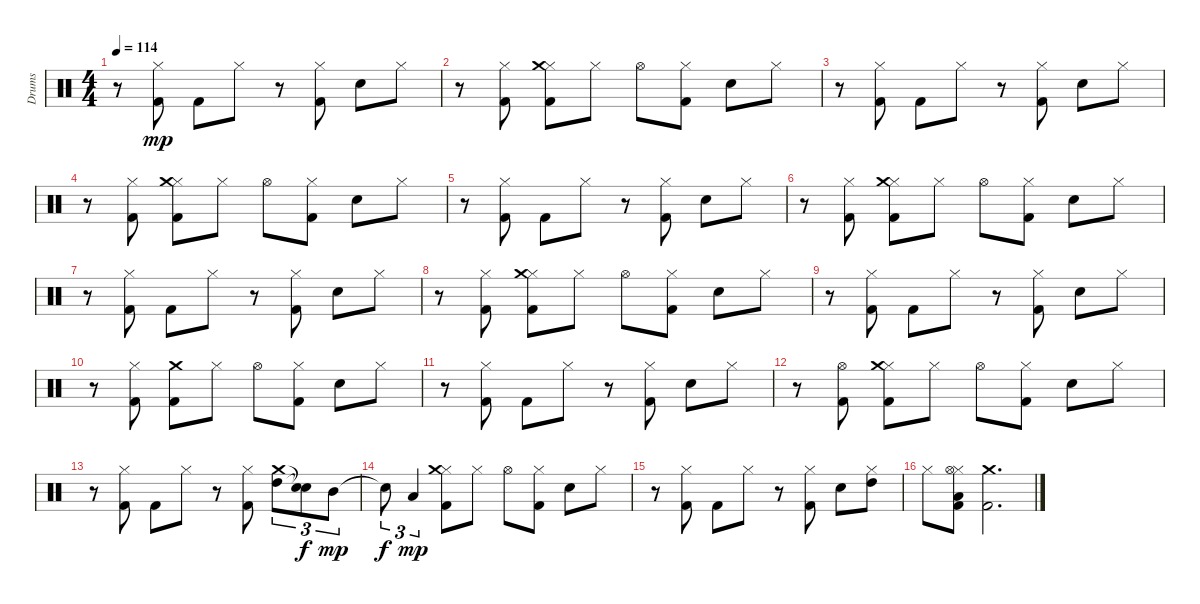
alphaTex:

\track ("Drums" "Drums") {instrument percussion}
\staff {score}
\articulation defaults
\ts (4 4)
\tempo 114
\clef neutral
\ks c
r.8{dy mp} ("Kick (hit) 2" "Hi-Hat (closed)").8 "Kick (hit) 2".8 "Hi-Hat (closed)".8 r.8 ("Kick (hit) 2" "Hi-Hat (closed)").8 "Snare (hit) 2".8 "Hi-Hat (closed)".8 |
r.8 ("Kick (hit) 2" "Hi-Hat (closed)").8 ("Kick (hit) 2" "Hi-Hat (closed)" "Crash medium (hit)").8 "Hi-Hat (closed)".8 "Hi-Hat (open)".8 ("Kick (hit) 2" "Hi-Hat (closed)").8 "Snare (hit) 2".8 "Hi-Hat (closed)".8 |
r.8 ("Kick (hit) 2" "Hi-Hat (closed)").8 "Kick (hit) 2".8 "Hi-Hat (closed)".8 r.8 ("Kick (hit) 2" "Hi-Hat (closed)").8 "Snare (hit) 2".8 "Hi-Hat (closed)".8 |
r.8 ("Kick (hit) 2" "Hi-Hat (closed)").8 ("Kick (hit) 2" "Hi-Hat (closed)" "Crash medium (hit)").8 "Hi-Hat (closed)".8 "Hi-Hat (open)".8 ("Kick (hit) 2" "Hi-Hat (closed)").8 "Snare (hit) 2".8 "Hi-Hat (closed)".8 |
r.8 ("Kick (hit) 2" "Hi-Hat (closed)").8 "Kick (hit) 2".8 "Hi-Hat (closed)".8 r.8 ("Kick (hit) 2" "Hi-Hat (closed)").8 "Snare (hit) 2".8 "Hi-Hat (closed)".8 |
r.8 ("Kick (hit) 2" "Hi-Hat (closed)").8 ("Kick (hit) 2" "Hi-Hat (closed)" "Crash medium (hit)").8 "Hi-Hat (closed)".8 "Hi-Hat (open)".8 ("Kick (hit) 2" "Hi-Hat (closed)").8 "Snare (hit) 2".8 "Hi-Hat (closed)".8 |
r.8 ("Kick (hit) 2" "Hi-Hat (closed)").8 "Kick (hit) 2".8 "Hi-Hat (closed)".8 r.8 ("Kick (hit) 2" "Hi-Hat (closed)").8 "Snare (hit) 2".8 "Hi-Hat (closed)".8 |
r.8 ("Kick (hit) 2" "Hi-Hat (closed)").8 ("Kick (hit) 2" "Hi-Hat (closed)" "Crash medium (hit)").8 "Hi-Hat (closed)".8 "Hi-Hat (open)".8 ("Kick (hit) 2" "Hi-Hat (closed)").8 "Snare (hit) 2".8 "Hi-Hat (closed)".8 |
r.8 ("Kick (hit) 2" "Hi-Hat (closed)").8 "Kick (hit) 2".8 "Hi-Hat (closed)".8 r.8 ("Kick (hit) 2" "Hi-Hat (closed)").8 "Snare (hit) 2".8 "Hi-Hat (closed)".8 |
r.8 ("Kick (hit) 2" "Hi-Hat (closed)").8 ("Kick (hit) 2" "Crash medium (hit)").8 "Hi-Hat (closed)".8 "Hi-Hat (open)".8 ("Kick (hit) 2" "Hi-Hat (closed)").8 "Snare (hit) 2".8 "Hi-Hat (closed)".8 |
r.8 ("Kick (hit) 2" "Hi-Hat (closed)").8 "Kick (hit) 2".8 "Hi-Hat (closed)".8 r.8 ("Kick (hit) 2" "Hi-Hat (closed)").8 "Snare (hit) 2".8 "Hi-Hat (closed)".8 |
r.8 ("Kick (hit) 2" "Hi-Hat (open)").8 ("Kick (hit) 2" "Hi-Hat (closed)" "Crash medium (hit)").8 "Hi-Hat (closed)".8 "Hi-Hat (open)".8 ("Kick (hit) 2" "Hi-Hat (closed)").8 "Snare (hit) 2".8 "Hi-Hat (closed)".8 |
r.8 ("Kick (hit) 2" "Hi-Hat (closed)").8 "Kick (hit) 2".8 "Hi-Hat (closed)".8 r.8 ("Kick (hit) 2" "Hi-Hat (closed)").8 ("High Tom (hit)" "Crash medium (hit)").8{tu (3 2)} ("Snare (hit)"{t} "Snare (hit)"{t}).8{tu (3 2) dy f} "Mid Tom (hit)".8{tu (3 2) dy mp} |
"Snare (hit)"{t}.8{tu (3 2) dy f} "Low Tom (hit)".4{tu (3 2) dy mp} ("Kick (hit) 2" "Hi-Hat (closed)" "Crash medium (hit)").8 "Hi-Hat (closed)".8 "Hi-Hat (open)".8 ("Kick (hit) 2" "Hi-Hat (closed)").8 "Snare (hit) 2".8 "Hi-Hat (closed)".8 |
r.8 ("Kick (hit) 2" "Hi-Hat (closed)").8 "Kick (hit) 2".8 "Hi-Hat (closed)".8 r.8 ("Kick (hit) 2" "Hi-Hat (closed)").8 "Snare (hit) 2".8 ("Hi-Hat (closed)" "High Tom (hit)").8 |
"Hi-Hat (closed)".8 ("Kick (hit) 2" "Hi-Hat (closed)" "Low Tom (hit)" "Hi-Hat (open)").8 ("Kick (hit) 2" "Crash medium (hit)").2{d}
